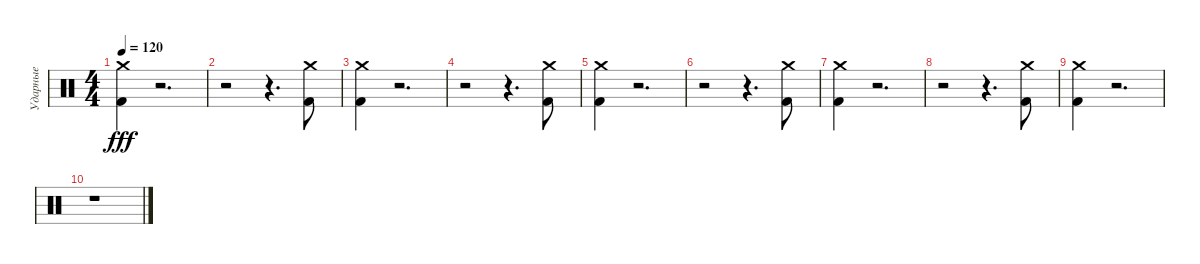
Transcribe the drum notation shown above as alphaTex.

\track ("Ударные" "Ударные") {instrument percussion}
\staff {score}
\articulation defaults
\ts (4 4)
\tempo 120
\clef neutral
\ks c
("Crash medium (hit)" "Kick (hit) 2").4{dy fff} r.2{d} |
r.2 r.4{d} ("Crash medium (hit)" "Kick (hit) 2").8 |
("Crash medium (hit)" "Kick (hit) 2").4 r.2{d} |
r.2 r.4{d} ("Crash medium (hit)" "Kick (hit) 2").8 |
("Crash medium (hit)" "Kick (hit) 2").4 r.2{d} |
r.2 r.4{d} ("Crash medium (hit)" "Kick (hit) 2").8 |
("Crash medium (hit)" "Kick (hit) 2").4{volume 0} r.2{d} |
r.2 r.4{d} ("Crash medium (hit)" "Kick (hit) 2").8 |
("Crash medium (hit)" "Kick (hit) 2").4 r.2{d} |
r.1
